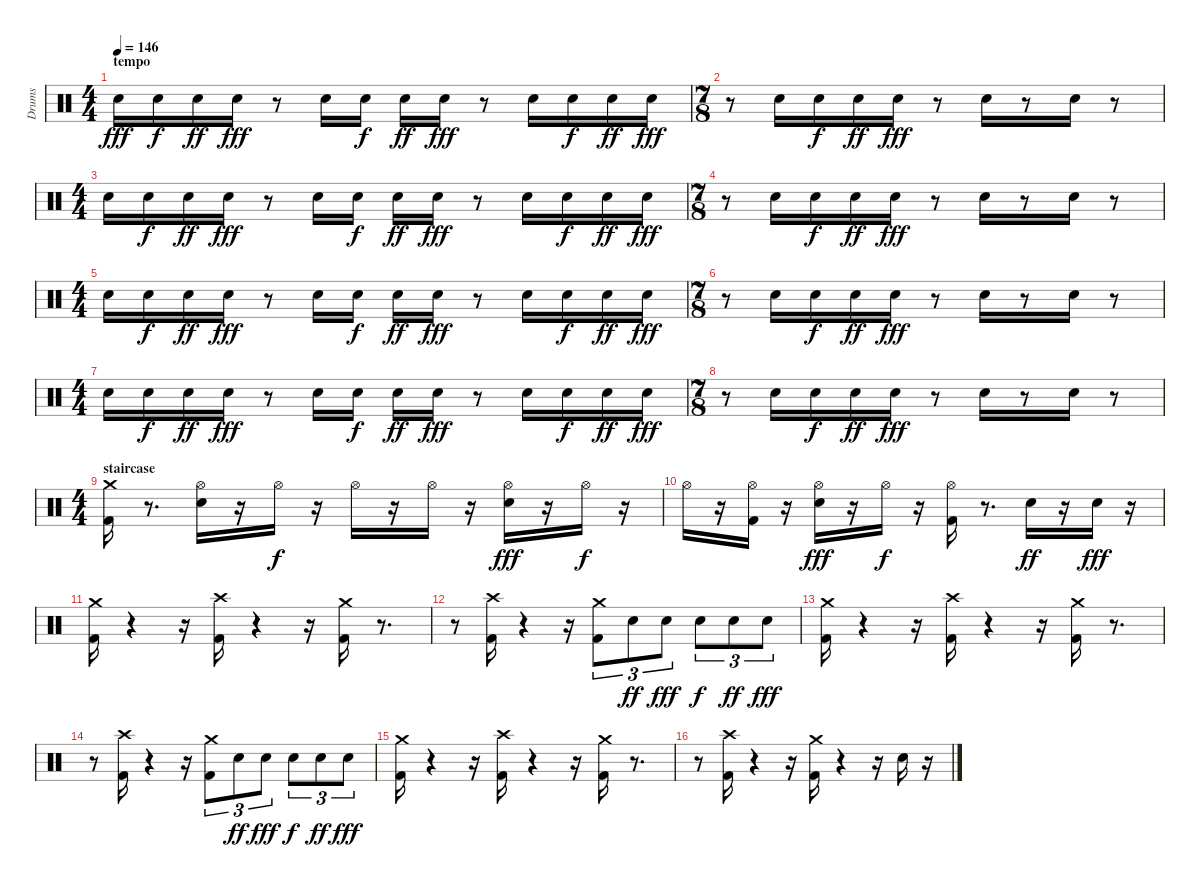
\track ("Drums" "Drums") {instrument percussion}
\staff {score}
\articulation defaults
\ts (4 4)
\section ("" "tempo")
\tempo 146
\clef neutral
\ks c "Snare (hit) 2".16{dy fff} "Snare (hit) 2".16{dy f} "Snare (hit) 2".16{dy ff} "Snare (hit) 2".16{dy fff}
r.8 "Snare (hit) 2".16 "Snare (hit) 2".16{dy f} "Snare (hit) 2".16{dy ff} "Snare (hit) 2".16{dy fff} r.8 "Snare (hit) 2".16 "Snare (hit) 2".16{dy f} "Snare (hit) 2".16{dy ff} "Snare (hit) 2".16{dy fff} |
\ts (7 8)
r.8 "Snare (hit) 2".16 "Snare (hit) 2".16{dy f} "Snare (hit) 2".16{dy ff} "Snare (hit) 2".16{dy fff} r.8 "Snare (hit) 2".16 r.8 "Snare (hit) 2".16 r.8 |
\ts (4 4)
"Snare (hit) 2".16 "Snare (hit) 2".16{dy f} "Snare (hit) 2".16{dy ff} "Snare (hit) 2".16{dy fff} r.8 "Snare (hit) 2".16 "Snare (hit) 2".16{dy f} "Snare (hit) 2".16{dy ff} "Snare (hit) 2".16{dy fff} r.8 "Snare (hit) 2".16 "Snare (hit) 2".16{dy f} "Snare (hit) 2".16{dy ff} "Snare (hit) 2".16{dy fff} |
\ts (7 8)
r.8 "Snare (hit) 2".16 "Snare (hit) 2".16{dy f} "Snare (hit) 2".16{dy ff} "Snare (hit) 2".16{dy fff} r.8 "Snare (hit) 2".16 r.8 "Snare (hit) 2".16 r.8 |
\ts (4 4)
"Snare (hit) 2".16 "Snare (hit) 2".16{dy f} "Snare (hit) 2".16{dy ff} "Snare (hit) 2".16{dy fff} r.8 "Snare (hit) 2".16 "Snare (hit) 2".16{dy f} "Snare (hit) 2".16{dy ff} "Snare (hit) 2".16{dy fff} r.8 "Snare (hit) 2".16 "Snare (hit) 2".16{dy f} "Snare (hit) 2".16{dy ff} "Snare (hit) 2".16{dy fff} |
\ts (7 8)
r.8 "Snare (hit) 2".16 "Snare (hit) 2".16{dy f} "Snare (hit) 2".16{dy ff} "Snare (hit) 2".16{dy fff} r.8 "Snare (hit) 2".16 r.8 "Snare (hit) 2".16 r.8 |
\ts (4 4)
"Snare (hit) 2".16 "Snare (hit) 2".16{dy f} "Snare (hit) 2".16{dy ff} "Snare (hit) 2".16{dy fff} r.8 "Snare (hit) 2".16 "Snare (hit) 2".16{dy f} "Snare (hit) 2".16{dy ff} "Snare (hit) 2".16{dy fff} r.8 "Snare (hit) 2".16 "Snare (hit) 2".16{dy f} "Snare (hit) 2".16{dy ff} "Snare (hit) 2".16{dy fff} |
\ts (7 8)
r.8 "Snare (hit) 2".16 "Snare (hit) 2".16{dy f} "Snare (hit) 2".16{dy ff} "Snare (hit) 2".16{dy fff} r.8 "Snare (hit) 2".16 r.8 "Snare (hit) 2".16 r.8 |
\ts (4 4)
\section ("" "staircase")
("Kick (hit) 2" "Crash medium (hit)").16 r.8{d} ("Snare (hit) 2" "Hi-Hat (open)").16 r.16 "Hi-Hat (open)".16{dy f} r.16 "Hi-Hat (open)".16 r.16 "Hi-Hat (open)".16 r.16 ("Snare (hit) 2" "Hi-Hat (open)").16{dy fff} r.16 "Hi-Hat (open)".16{dy f} r.16 |
"Hi-Hat (open)".16 r.16 ("Kick (hit) 2" "Hi-Hat (open)").16 r.16 ("Snare (hit) 2" "Hi-Hat (open)").16{dy fff} r.16 "Hi-Hat (open)".16{dy f} r.16 ("Kick (hit) 2" "Hi-Hat (open)").16 r.8{d} "Snare (hit) 2".16{dy ff} r.16 "Snare (hit) 2".16{dy fff} r.16 |
("Kick (hit) 2" "Crash medium (hit)").16 r.4 r.16 ("Kick (hit) 2" "Crash high (hit)").16 r.4 r.16 ("Kick (hit) 2" "Crash medium (hit)").16 r.8{d} |
r.8 ("Kick (hit) 2" "Crash high (hit)").16 r.4 r.16 ("Kick (hit) 2" "Crash medium (hit)").8{tu (3 2)} "Snare (hit) 2".8{tu (3 2) dy ff} "Snare (hit) 2".8{tu (3 2) dy fff} "Snare (hit) 2".8{tu (3 2) dy f} "Snare (hit) 2".8{tu (3 2) dy ff} "Snare (hit) 2".8{tu (3 2) dy fff} |
("Kick (hit) 2" "Crash medium (hit)").16 r.4 r.16 ("Kick (hit) 2" "Crash high (hit)").16 r.4 r.16 ("Kick (hit) 2" "Crash medium (hit)").16 r.8{d} |
r.8 ("Kick (hit) 2" "Crash high (hit)").16 r.4 r.16 ("Kick (hit) 2" "Crash medium (hit)").8{tu (3 2)} "Snare (hit) 2".8{tu (3 2) dy ff} "Snare (hit) 2".8{tu (3 2) dy fff} "Snare (hit) 2".8{tu (3 2) dy f} "Snare (hit) 2".8{tu (3 2) dy ff} "Snare (hit) 2".8{tu (3 2) dy fff} |
("Kick (hit) 2" "Crash medium (hit)").16 r.4 r.16 ("Kick (hit) 2" "Crash high (hit)").16 r.4 r.16 ("Kick (hit) 2" "Crash medium (hit)").16 r.8{d} |
r.8 ("Kick (hit) 2" "Crash high (hit)").16 r.4 r.16 ("Kick (hit) 2" "Crash medium (hit)").16 r.4 r.16 "Snare (hit) 2".16 r.16
